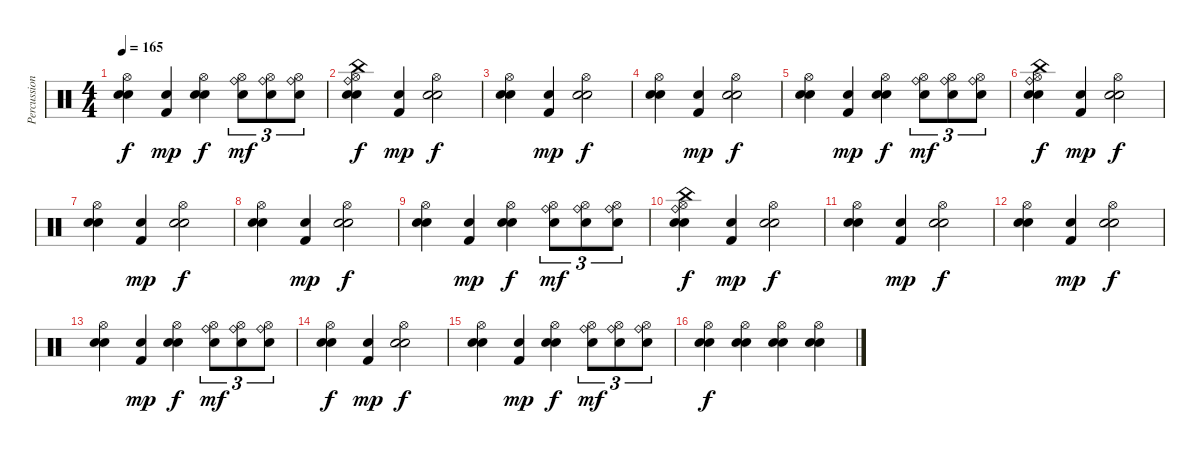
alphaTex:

\track ("Percussion" "Percussion") {instrument percussion}
\staff {score}
\articulation defaults
\ts (4 4)
\tempo 165
\clef neutral
\ks c
("Hi-Hat (open)" "Electric Snare (hit)" "Snare (hit) 2").4{dy f} ("Snare (hit) 2" "Kick (hit) 2").4{dy mp} ("Hi-Hat (open)" "Electric Snare (hit)" "Snare (hit) 2").4{dy f} ("Ride (bell)" "Hi-Hat (open)" "Electric Snare (hit)").8{tu (3 2) dy mf} ("Ride (bell)" "Hi-Hat (open)" "Electric Snare (hit)").8{tu (3 2)} ("Ride (bell)" "Hi-Hat (open)" "Electric Snare (hit)").8{tu (3 2)} |
("China (hit)" "Ride (bell)" "Hi-Hat (open)" "Electric Snare (hit)" "Snare (hit) 2").4{dy f} ("Snare (hit) 2" "Kick (hit) 2").4{dy mp} ("Hi-Hat (open)" "Electric Snare (hit)" "Snare (hit) 2").2{dy f} |
("Hi-Hat (open)" "Electric Snare (hit)" "Snare (hit) 2").4 ("Snare (hit) 2" "Kick (hit) 2").4{dy mp} ("Hi-Hat (open)" "Electric Snare (hit)" "Snare (hit) 2").2{dy f} |
("Hi-Hat (open)" "Electric Snare (hit)" "Snare (hit) 2").4 ("Snare (hit) 2" "Kick (hit) 2").4{dy mp} ("Hi-Hat (open)" "Electric Snare (hit)" "Snare (hit) 2").2{dy f} |
("Hi-Hat (open)" "Electric Snare (hit)" "Snare (hit) 2").4 ("Snare (hit) 2" "Kick (hit) 2").4{dy mp} ("Hi-Hat (open)" "Electric Snare (hit)" "Snare (hit) 2").4{dy f} ("Ride (bell)" "Hi-Hat (open)" "Electric Snare (hit)").8{tu (3 2) dy mf} ("Ride (bell)" "Hi-Hat (open)" "Electric Snare (hit)").8{tu (3 2)} ("Ride (bell)" "Hi-Hat (open)" "Electric Snare (hit)").8{tu (3 2)} |
("China (hit)" "Ride (bell)" "Hi-Hat (open)" "Electric Snare (hit)" "Snare (hit) 2").4{dy f} ("Snare (hit) 2" "Kick (hit) 2").4{dy mp} ("Hi-Hat (open)" "Electric Snare (hit)" "Snare (hit) 2").2{dy f} |
("Hi-Hat (open)" "Electric Snare (hit)" "Snare (hit) 2").4 ("Snare (hit) 2" "Kick (hit) 2").4{dy mp} ("Hi-Hat (open)" "Electric Snare (hit)" "Snare (hit) 2").2{dy f} |
("Hi-Hat (open)" "Electric Snare (hit)" "Snare (hit) 2").4 ("Snare (hit) 2" "Kick (hit) 2").4{dy mp} ("Hi-Hat (open)" "Electric Snare (hit)" "Snare (hit) 2").2{dy f} |
("Hi-Hat (open)" "Electric Snare (hit)" "Snare (hit) 2").4 ("Snare (hit) 2" "Kick (hit) 2").4{dy mp} ("Hi-Hat (open)" "Electric Snare (hit)" "Snare (hit) 2").4{dy f} ("Ride (bell)" "Hi-Hat (open)" "Electric Snare (hit)").8{tu (3 2) dy mf} ("Ride (bell)" "Hi-Hat (open)" "Electric Snare (hit)").8{tu (3 2)} ("Ride (bell)" "Hi-Hat (open)" "Electric Snare (hit)").8{tu (3 2)} |
("China (hit)" "Ride (bell)" "Hi-Hat (open)" "Electric Snare (hit)" "Snare (hit) 2").4{dy f} ("Snare (hit) 2" "Kick (hit) 2").4{dy mp} ("Hi-Hat (open)" "Electric Snare (hit)" "Snare (hit) 2").2{dy f} |
("Hi-Hat (open)" "Electric Snare (hit)" "Snare (hit) 2").4 ("Snare (hit) 2" "Kick (hit) 2").4{dy mp} ("Hi-Hat (open)" "Electric Snare (hit)" "Snare (hit) 2").2{dy f} |
("Hi-Hat (open)" "Electric Snare (hit)" "Snare (hit) 2").4 ("Snare (hit) 2" "Kick (hit) 2").4{dy mp} ("Hi-Hat (open)" "Electric Snare (hit)" "Snare (hit) 2").2{dy f} |
("Hi-Hat (open)" "Electric Snare (hit)" "Snare (hit) 2").4 ("Snare (hit) 2" "Kick (hit) 2").4{dy mp} ("Hi-Hat (open)" "Electric Snare (hit)" "Snare (hit) 2").4{dy f} ("Ride (bell)" "Hi-Hat (open)" "Electric Snare (hit)").8{tu (3 2) dy mf} ("Ride (bell)" "Hi-Hat (open)" "Electric Snare (hit)").8{tu (3 2)} ("Ride (bell)" "Hi-Hat (open)" "Electric Snare (hit)").8{tu (3 2)} |
("Hi-Hat (open)" "Electric Snare (hit)" "Snare (hit) 2").4{dy f} ("Snare (hit) 2" "Kick (hit) 2").4{dy mp} ("Hi-Hat (open)" "Electric Snare (hit)" "Snare (hit) 2").2{dy f} |
("Hi-Hat (open)" "Electric Snare (hit)" "Snare (hit) 2").4 ("Snare (hit) 2" "Kick (hit) 2").4{dy mp} ("Hi-Hat (open)" "Electric Snare (hit)" "Snare (hit) 2").4{dy f} ("Ride (bell)" "Hi-Hat (open)" "Electric Snare (hit)").8{tu (3 2) dy mf} ("Ride (bell)" "Hi-Hat (open)" "Electric Snare (hit)").8{tu (3 2)} ("Ride (bell)" "Hi-Hat (open)" "Electric Snare (hit)").8{tu (3 2)} |
("Hi-Hat (open)" "Electric Snare (hit)" "Snare (hit) 2").4{dy f} ("Hi-Hat (open)" "Electric Snare (hit)" "Snare (hit) 2").4 ("Hi-Hat (open)" "Electric Snare (hit)" "Snare (hit) 2").4 ("Hi-Hat (open)" "Electric Snare (hit)" "Snare (hit) 2").4
